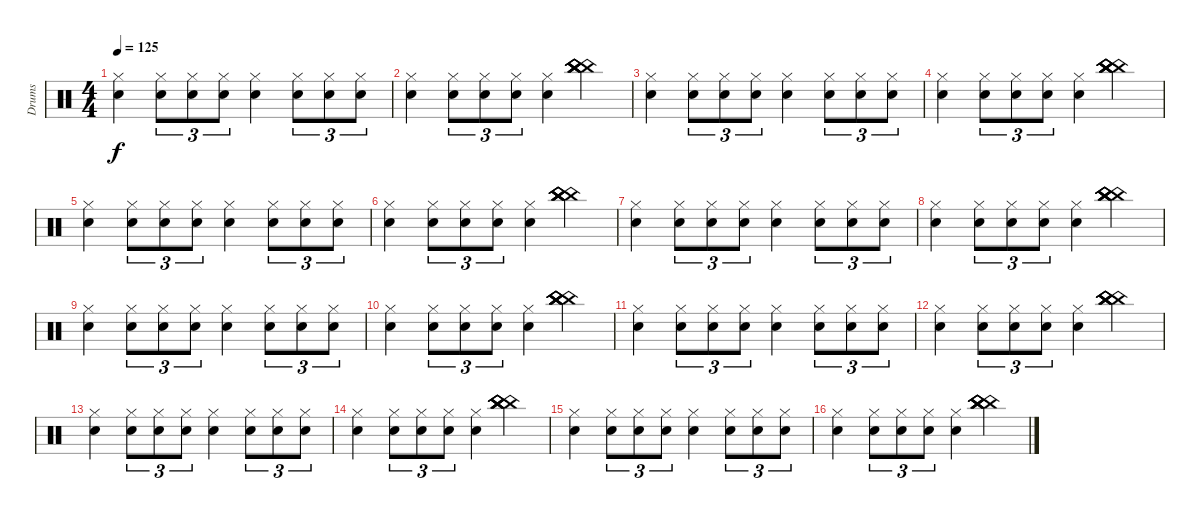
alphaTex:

\track ("Drums" "Drums") {instrument percussion}
\staff {score}
\articulation defaults
\ts (4 4)
\tempo 125
\clef neutral
\ks c
("Hi-Hat (closed)" "Electric Snare (hit)").4{dy f} ("Hi-Hat (closed)" "Electric Snare (hit)").8{tu (3 2)} ("Hi-Hat (closed)" "Electric Snare (hit)").8{tu (3 2)} ("Hi-Hat (closed)" "Electric Snare (hit)").8{tu (3 2)} ("Hi-Hat (closed)" "Electric Snare (hit)").4 ("Hi-Hat (closed)" "Electric Snare (hit)").8{tu (3 2)} ("Hi-Hat (closed)" "Electric Snare (hit)").8{tu (3 2)} ("Hi-Hat (closed)" "Electric Snare (hit)").8{tu (3 2)} |
("Hi-Hat (closed)" "Electric Snare (hit)").4 ("Hi-Hat (closed)" "Electric Snare (hit)").8{tu (3 2)} ("Hi-Hat (closed)" "Electric Snare (hit)").8{tu (3 2)} ("Hi-Hat (closed)" "Electric Snare (hit)").8{tu (3 2)} ("Hi-Hat (closed)" "Electric Snare (hit)").4 ("China (hit)" "China (hit)" "China (hit)" "China (hit)" "China (hit)" "China (hit)").4 |
("Hi-Hat (closed)" "Electric Snare (hit)").4 ("Hi-Hat (closed)" "Electric Snare (hit)").8{tu (3 2)} ("Hi-Hat (closed)" "Electric Snare (hit)").8{tu (3 2)} ("Hi-Hat (closed)" "Electric Snare (hit)").8{tu (3 2)} ("Hi-Hat (closed)" "Electric Snare (hit)").4 ("Hi-Hat (closed)" "Electric Snare (hit)").8{tu (3 2)} ("Hi-Hat (closed)" "Electric Snare (hit)").8{tu (3 2)} ("Hi-Hat (closed)" "Electric Snare (hit)").8{tu (3 2)} |
("Hi-Hat (closed)" "Electric Snare (hit)").4 ("Hi-Hat (closed)" "Electric Snare (hit)").8{tu (3 2)} ("Hi-Hat (closed)" "Electric Snare (hit)").8{tu (3 2)} ("Hi-Hat (closed)" "Electric Snare (hit)").8{tu (3 2)} ("Hi-Hat (closed)" "Electric Snare (hit)").4 ("China (hit)" "China (hit)" "China (hit)" "China (hit)" "China (hit)" "China (hit)").4 |
("Hi-Hat (closed)" "Electric Snare (hit)").4 ("Hi-Hat (closed)" "Electric Snare (hit)").8{tu (3 2)} ("Hi-Hat (closed)" "Electric Snare (hit)").8{tu (3 2)} ("Hi-Hat (closed)" "Electric Snare (hit)").8{tu (3 2)} ("Hi-Hat (closed)" "Electric Snare (hit)").4 ("Hi-Hat (closed)" "Electric Snare (hit)").8{tu (3 2)} ("Hi-Hat (closed)" "Electric Snare (hit)").8{tu (3 2)} ("Hi-Hat (closed)" "Electric Snare (hit)").8{tu (3 2)} |
("Hi-Hat (closed)" "Electric Snare (hit)").4 ("Hi-Hat (closed)" "Electric Snare (hit)").8{tu (3 2)} ("Hi-Hat (closed)" "Electric Snare (hit)").8{tu (3 2)} ("Hi-Hat (closed)" "Electric Snare (hit)").8{tu (3 2)} ("Hi-Hat (closed)" "Electric Snare (hit)").4 ("China (hit)" "China (hit)" "China (hit)" "China (hit)" "China (hit)" "China (hit)").4 |
("Hi-Hat (closed)" "Electric Snare (hit)").4 ("Hi-Hat (closed)" "Electric Snare (hit)").8{tu (3 2)} ("Hi-Hat (closed)" "Electric Snare (hit)").8{tu (3 2)} ("Hi-Hat (closed)" "Electric Snare (hit)").8{tu (3 2)} ("Hi-Hat (closed)" "Electric Snare (hit)").4 ("Hi-Hat (closed)" "Electric Snare (hit)").8{tu (3 2)} ("Hi-Hat (closed)" "Electric Snare (hit)").8{tu (3 2)} ("Hi-Hat (closed)" "Electric Snare (hit)").8{tu (3 2)} |
("Hi-Hat (closed)" "Electric Snare (hit)").4 ("Hi-Hat (closed)" "Electric Snare (hit)").8{tu (3 2)} ("Hi-Hat (closed)" "Electric Snare (hit)").8{tu (3 2)} ("Hi-Hat (closed)" "Electric Snare (hit)").8{tu (3 2)} ("Hi-Hat (closed)" "Electric Snare (hit)").4 ("China (hit)" "China (hit)" "China (hit)" "China (hit)" "China (hit)" "China (hit)").4 |
("Hi-Hat (closed)" "Electric Snare (hit)").4 ("Hi-Hat (closed)" "Electric Snare (hit)").8{tu (3 2)} ("Hi-Hat (closed)" "Electric Snare (hit)").8{tu (3 2)} ("Hi-Hat (closed)" "Electric Snare (hit)").8{tu (3 2)} ("Hi-Hat (closed)" "Electric Snare (hit)").4 ("Hi-Hat (closed)" "Electric Snare (hit)").8{tu (3 2)} ("Hi-Hat (closed)" "Electric Snare (hit)").8{tu (3 2)} ("Hi-Hat (closed)" "Electric Snare (hit)").8{tu (3 2)} |
("Hi-Hat (closed)" "Electric Snare (hit)").4 ("Hi-Hat (closed)" "Electric Snare (hit)").8{tu (3 2)} ("Hi-Hat (closed)" "Electric Snare (hit)").8{tu (3 2)} ("Hi-Hat (closed)" "Electric Snare (hit)").8{tu (3 2)} ("Hi-Hat (closed)" "Electric Snare (hit)").4 ("China (hit)" "China (hit)" "China (hit)" "China (hit)" "China (hit)" "China (hit)").4 |
("Hi-Hat (closed)" "Electric Snare (hit)").4 ("Hi-Hat (closed)" "Electric Snare (hit)").8{tu (3 2)} ("Hi-Hat (closed)" "Electric Snare (hit)").8{tu (3 2)} ("Hi-Hat (closed)" "Electric Snare (hit)").8{tu (3 2)} ("Hi-Hat (closed)" "Electric Snare (hit)").4 ("Hi-Hat (closed)" "Electric Snare (hit)").8{tu (3 2)} ("Hi-Hat (closed)" "Electric Snare (hit)").8{tu (3 2)} ("Hi-Hat (closed)" "Electric Snare (hit)").8{tu (3 2)} |
("Hi-Hat (closed)" "Electric Snare (hit)").4 ("Hi-Hat (closed)" "Electric Snare (hit)").8{tu (3 2)} ("Hi-Hat (closed)" "Electric Snare (hit)").8{tu (3 2)} ("Hi-Hat (closed)" "Electric Snare (hit)").8{tu (3 2)} ("Hi-Hat (closed)" "Electric Snare (hit)").4 ("China (hit)" "China (hit)" "China (hit)" "China (hit)" "China (hit)" "China (hit)").4 |
("Hi-Hat (closed)" "Electric Snare (hit)").4 ("Hi-Hat (closed)" "Electric Snare (hit)").8{tu (3 2)} ("Hi-Hat (closed)" "Electric Snare (hit)").8{tu (3 2)} ("Hi-Hat (closed)" "Electric Snare (hit)").8{tu (3 2)} ("Hi-Hat (closed)" "Electric Snare (hit)").4 ("Hi-Hat (closed)" "Electric Snare (hit)").8{tu (3 2)} ("Hi-Hat (closed)" "Electric Snare (hit)").8{tu (3 2)} ("Hi-Hat (closed)" "Electric Snare (hit)").8{tu (3 2)} |
("Hi-Hat (closed)" "Electric Snare (hit)").4 ("Hi-Hat (closed)" "Electric Snare (hit)").8{tu (3 2)} ("Hi-Hat (closed)" "Electric Snare (hit)").8{tu (3 2)} ("Hi-Hat (closed)" "Electric Snare (hit)").8{tu (3 2)} ("Hi-Hat (closed)" "Electric Snare (hit)").4 ("China (hit)" "China (hit)" "China (hit)" "China (hit)" "China (hit)" "China (hit)").4 |
("Hi-Hat (closed)" "Electric Snare (hit)").4 ("Hi-Hat (closed)" "Electric Snare (hit)").8{tu (3 2)} ("Hi-Hat (closed)" "Electric Snare (hit)").8{tu (3 2)} ("Hi-Hat (closed)" "Electric Snare (hit)").8{tu (3 2)} ("Hi-Hat (closed)" "Electric Snare (hit)").4 ("Hi-Hat (closed)" "Electric Snare (hit)").8{tu (3 2)} ("Hi-Hat (closed)" "Electric Snare (hit)").8{tu (3 2)} ("Hi-Hat (closed)" "Electric Snare (hit)").8{tu (3 2)} |
("Hi-Hat (closed)" "Electric Snare (hit)").4 ("Hi-Hat (closed)" "Electric Snare (hit)").8{tu (3 2)} ("Hi-Hat (closed)" "Electric Snare (hit)").8{tu (3 2)} ("Hi-Hat (closed)" "Electric Snare (hit)").8{tu (3 2)} ("Hi-Hat (closed)" "Electric Snare (hit)").4 ("China (hit)" "China (hit)" "China (hit)" "China (hit)" "China (hit)" "China (hit)").4
